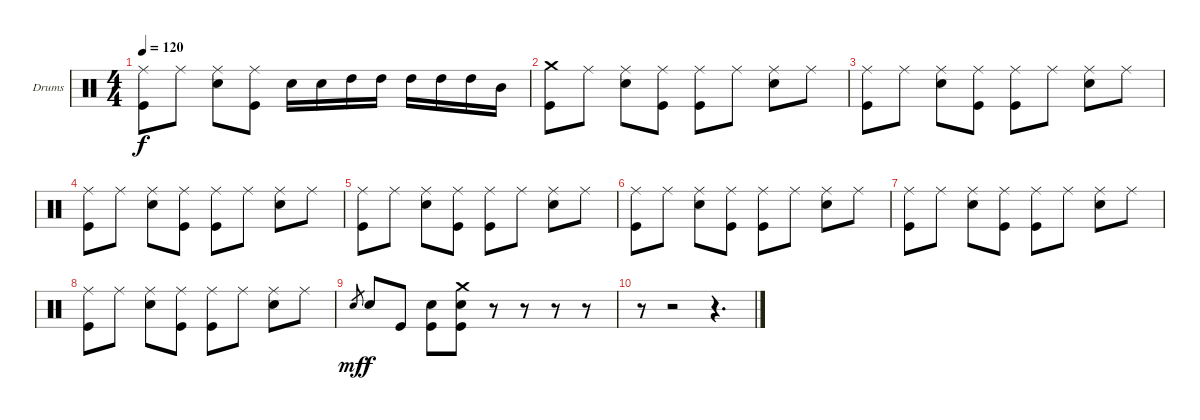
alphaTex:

\bracketExtendMode groupsimilarinstruments
\firstSystemTrackNameOrientation horizontal
\otherSystemsTrackNameOrientation horizontal
\track ("Drumkit" "Drums") {instrument percussion}
\staff {score}
\articulation defaults
\ts (4 4)
\tempo 120
\clef neutral
\ks c
("Ride (middle)" "Kick (hit)").8{dy f} "Ride (middle)".8 ("Ride (middle)" "Snare (hit) 2").8 ("Ride (middle)" "Kick (hit)").8 "Snare (hit) 2".16 "Snare (hit) 2".16 "High Tom (hit)".16 "High Tom (hit)".16 "High Tom (hit)".16 "High Tom (hit)".16 "High Tom (hit)".16 "Mid Tom (hit)".16 |
("Crash medium (hit)" "Kick (hit)").8 "Ride (middle)".8 ("Ride (middle)" "Snare (hit) 2").8 ("Ride (middle)" "Kick (hit)").8 ("Ride (middle)" "Kick (hit)").8 "Ride (middle)".8 ("Ride (middle)" "Snare (hit) 2").8 "Ride (middle)".8 |
("Ride (middle)" "Kick (hit)").8 "Ride (middle)".8 ("Ride (middle)" "Snare (hit) 2").8 ("Ride (middle)" "Kick (hit)").8 ("Ride (middle)" "Kick (hit)").8 "Ride (middle)".8 ("Ride (middle)" "Snare (hit) 2").8 "Ride (middle)".8 |
("Ride (middle)" "Kick (hit)").8 "Ride (middle)".8 ("Ride (middle)" "Snare (hit) 2").8 ("Ride (middle)" "Kick (hit)").8 ("Ride (middle)" "Kick (hit)").8 "Ride (middle)".8 ("Ride (middle)" "Snare (hit) 2").8 "Ride (middle)".8 |
("Ride (middle)" "Kick (hit)").8 "Ride (middle)".8 ("Ride (middle)" "Snare (hit) 2").8 ("Ride (middle)" "Kick (hit)").8 ("Ride (middle)" "Kick (hit)").8 "Ride (middle)".8 ("Ride (middle)" "Snare (hit) 2").8 "Ride (middle)".8 |
("Ride (middle)" "Kick (hit)").8 "Ride (middle)".8 ("Ride (middle)" "Snare (hit) 2").8 ("Ride (middle)" "Kick (hit)").8 ("Ride (middle)" "Kick (hit)").8 "Ride (middle)".8 ("Ride (middle)" "Snare (hit) 2").8 "Ride (middle)".8 |
("Ride (middle)" "Kick (hit)").8 "Ride (middle)".8 ("Ride (middle)" "Snare (hit) 2").8 ("Ride (middle)" "Kick (hit)").8 ("Ride (middle)" "Kick (hit)").8 "Ride (middle)".8 ("Ride (middle)" "Snare (hit) 2").8 "Ride (middle)".8 |
("Ride (middle)" "Kick (hit)").8 "Ride (middle)".8 ("Ride (middle)" "Snare (hit) 2").8 ("Ride (middle)" "Kick (hit)").8 ("Ride (middle)" "Kick (hit)").8 "Ride (middle)".8 ("Ride (middle)" "Snare (hit) 2").8 "Ride (middle)".8 |
"Snare (hit) 2".8{gr dy mf} "Snare (hit) 2".8{dy f} "Kick (hit)".8 ("Snare (hit) 2" "Kick (hit)").8 ("Crash medium (hit)" "Snare (hit) 2" "Kick (hit)").8 r.8 r.8 r.8 r.8 |
r.8 r.2 r.4{d}
